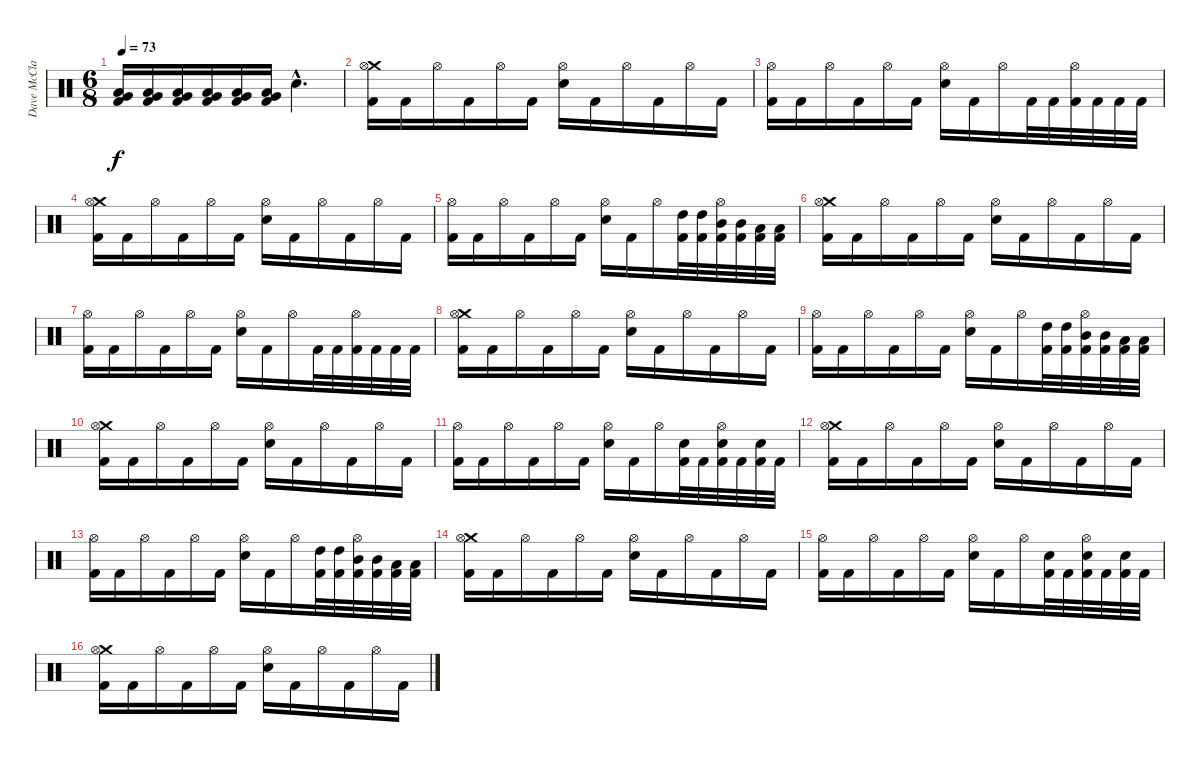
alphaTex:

\track ("Dave McClain" "Dave McCla") {instrument percussion}
\staff {score}
\articulation defaults
\ts (6 8)
\tempo 73
\clef neutral
\ks c
("Very Low Tom (hit)" "Low Floor Tom (hit)" "Kick (hit) 2").16{dy f} ("Very Low Tom (hit)" "Low Floor Tom (hit)" "Kick (hit) 2").16 ("Very Low Tom (hit)" "Low Floor Tom (hit)" "Kick (hit) 2").16 ("Very Low Tom (hit)" "Low Floor Tom (hit)" "Kick (hit) 2").16 ("Very Low Tom (hit)" "Low Floor Tom (hit)" "Kick (hit) 2").16 ("Very Low Tom (hit)" "Low Floor Tom (hit)" "Kick (hit) 2").16 "Snare (hit) 2"{hac}.4{d} |
("Crash medium (hit)" "Hi-Hat (open)" "Kick (hit) 2").16 "Kick (hit) 2".16 "Hi-Hat (open)".16 "Kick (hit) 2".16 "Hi-Hat (open)".16 "Kick (hit) 2".16 ("Hi-Hat (open)" "Snare (hit) 2").16 "Kick (hit) 2".16 "Hi-Hat (open)".16 "Kick (hit) 2".16 "Hi-Hat (open)".16 "Kick (hit) 2".16 |
("Hi-Hat (open)" "Kick (hit) 2").16 "Kick (hit) 2".16 "Hi-Hat (open)".16 "Kick (hit) 2".16 "Hi-Hat (open)".16 "Kick (hit) 2".16 ("Hi-Hat (open)" "Snare (hit) 2").16 "Kick (hit) 2".16 "Hi-Hat (open)".16 "Kick (hit) 2".32 "Kick (hit) 2".32 ("Hi-Hat (open)" "Kick (hit) 2").32 "Kick (hit) 2".32 "Kick (hit) 2".32 "Kick (hit) 2".32 |
("Crash medium (hit)" "Hi-Hat (open)" "Kick (hit) 2").16 "Kick (hit) 2".16 "Hi-Hat (open)".16 "Kick (hit) 2".16 "Hi-Hat (open)".16 "Kick (hit) 2".16 ("Hi-Hat (open)" "Snare (hit) 2").16 "Kick (hit) 2".16 "Hi-Hat (open)".16 "Kick (hit) 2".16 "Hi-Hat (open)".16 "Kick (hit) 2".16 |
("Hi-Hat (open)" "Kick (hit) 2").16 "Kick (hit) 2".16 "Hi-Hat (open)".16 "Kick (hit) 2".16 "Hi-Hat (open)".16 "Kick (hit) 2".16 ("Hi-Hat (open)" "Snare (hit) 2").16 "Kick (hit) 2".16 "Hi-Hat (open)".16 ("High Tom (hit)" "Kick (hit) 2").32 ("High Tom (hit)" "Kick (hit) 2").32 ("Hi-Hat (open)" "Mid Tom (hit)" "Kick (hit) 2").32 ("Mid Tom (hit)" "Kick (hit) 2").32 ("Low Tom (hit)" "Kick (hit) 2").32 ("Low Tom (hit)" "Kick (hit) 2").32 |
("Crash medium (hit)" "Hi-Hat (open)" "Kick (hit) 2").16 "Kick (hit) 2".16 "Hi-Hat (open)".16 "Kick (hit) 2".16 "Hi-Hat (open)".16 "Kick (hit) 2".16 ("Hi-Hat (open)" "Snare (hit) 2").16 "Kick (hit) 2".16 "Hi-Hat (open)".16 "Kick (hit) 2".16 "Hi-Hat (open)".16 "Kick (hit) 2".16 |
("Hi-Hat (open)" "Kick (hit) 2").16 "Kick (hit) 2".16 "Hi-Hat (open)".16 "Kick (hit) 2".16 "Hi-Hat (open)".16 "Kick (hit) 2".16 ("Hi-Hat (open)" "Snare (hit) 2").16 "Kick (hit) 2".16 "Hi-Hat (open)".16 "Kick (hit) 2".32 "Kick (hit) 2".32 ("Hi-Hat (open)" "Kick (hit) 2").32 "Kick (hit) 2".32 "Kick (hit) 2".32 "Kick (hit) 2".32 |
("Crash medium (hit)" "Hi-Hat (open)" "Kick (hit) 2").16 "Kick (hit) 2".16 "Hi-Hat (open)".16 "Kick (hit) 2".16 "Hi-Hat (open)".16 "Kick (hit) 2".16 ("Hi-Hat (open)" "Snare (hit) 2").16 "Kick (hit) 2".16 "Hi-Hat (open)".16 "Kick (hit) 2".16 "Hi-Hat (open)".16 "Kick (hit) 2".16 |
("Hi-Hat (open)" "Kick (hit) 2").16 "Kick (hit) 2".16 "Hi-Hat (open)".16 "Kick (hit) 2".16 "Hi-Hat (open)".16 "Kick (hit) 2".16 ("Hi-Hat (open)" "Snare (hit) 2").16 "Kick (hit) 2".16 "Hi-Hat (open)".16 ("High Tom (hit)" "Kick (hit) 2").32 ("High Tom (hit)" "Kick (hit) 2").32 ("Hi-Hat (open)" "Mid Tom (hit)" "Kick (hit) 2").32 ("Mid Tom (hit)" "Kick (hit) 2").32 ("Low Tom (hit)" "Kick (hit) 2").32 ("Low Tom (hit)" "Kick (hit) 2").32 |
("Crash medium (hit)" "Hi-Hat (open)" "Kick (hit) 2").16 "Kick (hit) 2".16 "Hi-Hat (open)".16 "Kick (hit) 2".16 "Hi-Hat (open)".16 "Kick (hit) 2".16 ("Hi-Hat (open)" "Snare (hit) 2").16 "Kick (hit) 2".16 "Hi-Hat (open)".16 "Kick (hit) 2".16 "Hi-Hat (open)".16 "Kick (hit) 2".16 |
("Hi-Hat (open)" "Kick (hit) 2").16 "Kick (hit) 2".16 "Hi-Hat (open)".16 "Kick (hit) 2".16 "Hi-Hat (open)".16 "Kick (hit) 2".16 ("Hi-Hat (open)" "Snare (hit) 2").16 "Kick (hit) 2".16 "Hi-Hat (open)".16 ("Snare (hit) 2" "Kick (hit) 2").32 "Kick (hit) 2".32 ("Hi-Hat (open)" "Snare (hit) 2" "Kick (hit) 2").32 "Kick (hit) 2".32 ("Snare (hit) 2" "Kick (hit) 2").32 "Kick (hit) 2".32 |
("Crash medium (hit)" "Hi-Hat (open)" "Kick (hit) 2").16 "Kick (hit) 2".16 "Hi-Hat (open)".16 "Kick (hit) 2".16 "Hi-Hat (open)".16 "Kick (hit) 2".16 ("Hi-Hat (open)" "Snare (hit) 2").16 "Kick (hit) 2".16 "Hi-Hat (open)".16 "Kick (hit) 2".16 "Hi-Hat (open)".16 "Kick (hit) 2".16 |
("Hi-Hat (open)" "Kick (hit) 2").16 "Kick (hit) 2".16 "Hi-Hat (open)".16 "Kick (hit) 2".16 "Hi-Hat (open)".16 "Kick (hit) 2".16 ("Hi-Hat (open)" "Snare (hit) 2").16 "Kick (hit) 2".16 "Hi-Hat (open)".16 ("High Tom (hit)" "Kick (hit) 2").32 ("High Tom (hit)" "Kick (hit) 2").32 ("Hi-Hat (open)" "Mid Tom (hit)" "Kick (hit) 2").32 ("Mid Tom (hit)" "Kick (hit) 2").32 ("Low Tom (hit)" "Kick (hit) 2").32 ("Low Tom (hit)" "Kick (hit) 2").32 |
("Crash medium (hit)" "Hi-Hat (open)" "Kick (hit) 2").16 "Kick (hit) 2".16 "Hi-Hat (open)".16 "Kick (hit) 2".16 "Hi-Hat (open)".16 "Kick (hit) 2".16 ("Hi-Hat (open)" "Snare (hit) 2").16 "Kick (hit) 2".16 "Hi-Hat (open)".16 "Kick (hit) 2".16 "Hi-Hat (open)".16 "Kick (hit) 2".16 |
("Hi-Hat (open)" "Kick (hit) 2").16 "Kick (hit) 2".16 "Hi-Hat (open)".16 "Kick (hit) 2".16 "Hi-Hat (open)".16 "Kick (hit) 2".16 ("Hi-Hat (open)" "Snare (hit) 2").16 "Kick (hit) 2".16 "Hi-Hat (open)".16 ("Snare (hit) 2" "Kick (hit) 2").32 "Kick (hit) 2".32 ("Hi-Hat (open)" "Snare (hit) 2" "Kick (hit) 2").32 "Kick (hit) 2".32 ("Snare (hit) 2" "Kick (hit) 2").32 "Kick (hit) 2".32 |
("Crash medium (hit)" "Hi-Hat (open)" "Kick (hit) 2").16 "Kick (hit) 2".16 "Hi-Hat (open)".16 "Kick (hit) 2".16 "Hi-Hat (open)".16 "Kick (hit) 2".16 ("Hi-Hat (open)" "Snare (hit) 2").16 "Kick (hit) 2".16 "Hi-Hat (open)".16 "Kick (hit) 2".16 "Hi-Hat (open)".16 "Kick (hit) 2".16
